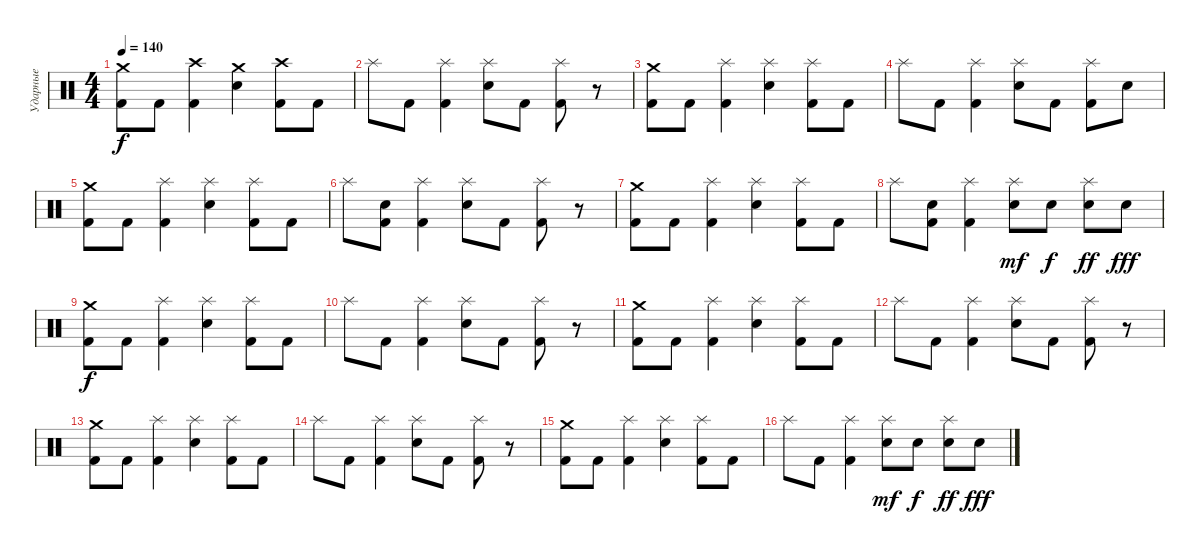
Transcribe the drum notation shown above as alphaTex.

\track ("Ударные" "Ударные") {instrument percussion}
\staff {score}
\articulation defaults
\ts (4 4)
\tempo 140
\clef neutral
\ks c
("Kick (hit) 2" "Crash medium (hit)").8{dy f} "Kick (hit) 2".8 ("Crash high (hit)" "Kick (hit) 2").4 ("Crash medium (hit)" "Electric Snare (hit)").4 ("Crash high (hit)" "Kick (hit) 2").8 "Kick (hit) 2".8 |
"Splash (hit)".8 "Kick (hit) 2".8 ("Splash (hit)" "Kick (hit) 2").4 ("Splash (hit)" "Electric Snare (hit)").8 "Kick (hit) 2".8 ("Splash (hit)" "Kick (hit) 2").8 r.8 |
("Kick (hit) 2" "Crash medium (hit)").8 "Kick (hit) 2".8 ("Splash (hit)" "Kick (hit) 2").4 ("Splash (hit)" "Electric Snare (hit)").4 ("Splash (hit)" "Kick (hit) 2").8 "Kick (hit) 2".8 |
"Splash (hit)".8 "Kick (hit) 2".8 ("Splash (hit)" "Kick (hit) 2").4 ("Splash (hit)" "Electric Snare (hit)").8 "Kick (hit) 2".8 ("Splash (hit)" "Kick (hit) 2").8 "Electric Snare (hit)".8 |
("Kick (hit) 2" "Crash medium (hit)").8 "Kick (hit) 2".8 ("Splash (hit)" "Kick (hit) 2").4 ("Splash (hit)" "Electric Snare (hit)").4 ("Splash (hit)" "Kick (hit) 2").8 "Kick (hit) 2".8 |
"Splash (hit)".8 ("Electric Snare (hit)" "Kick (hit) 2").8 ("Splash (hit)" "Kick (hit) 2").4 ("Splash (hit)" "Electric Snare (hit)").8 "Kick (hit) 2".8 ("Splash (hit)" "Kick (hit) 2").8 r.8 |
("Kick (hit) 2" "Crash medium (hit)").8 "Kick (hit) 2".8 ("Splash (hit)" "Kick (hit) 2").4 ("Splash (hit)" "Electric Snare (hit)").4 ("Splash (hit)" "Kick (hit) 2").8 "Kick (hit) 2".8 |
"Splash (hit)".8 ("Electric Snare (hit)" "Kick (hit) 2").8 ("Splash (hit)" "Kick (hit) 2").4 ("Splash (hit)" "Electric Snare (hit)").8{dy mf} "Electric Snare (hit)".8{dy f} ("Splash (hit)" "Electric Snare (hit)").8{dy ff} "Electric Snare (hit)".8{dy fff} |
("Kick (hit) 2" "Crash medium (hit)").8{dy f} "Kick (hit) 2".8 ("Splash (hit)" "Kick (hit) 2").4 ("Splash (hit)" "Electric Snare (hit)").4 ("Splash (hit)" "Kick (hit) 2").8 "Kick (hit) 2".8 |
"Splash (hit)".8 "Kick (hit) 2".8 ("Splash (hit)" "Kick (hit) 2").4 ("Splash (hit)" "Electric Snare (hit)").8 "Kick (hit) 2".8 ("Splash (hit)" "Kick (hit) 2").8 r.8 |
("Kick (hit) 2" "Crash medium (hit)").8 "Kick (hit) 2".8 ("Splash (hit)" "Kick (hit) 2").4 ("Splash (hit)" "Electric Snare (hit)").4 ("Splash (hit)" "Kick (hit) 2").8 "Kick (hit) 2".8 |
"Splash (hit)".8 "Kick (hit) 2".8 ("Splash (hit)" "Kick (hit) 2").4 ("Splash (hit)" "Electric Snare (hit)").8 "Kick (hit) 2".8 ("Splash (hit)" "Kick (hit) 2").8 r.8 |
("Kick (hit) 2" "Crash medium (hit)").8 "Kick (hit) 2".8 ("Splash (hit)" "Kick (hit) 2").4 ("Splash (hit)" "Electric Snare (hit)").4 ("Splash (hit)" "Kick (hit) 2").8 "Kick (hit) 2".8 |
"Splash (hit)".8 "Kick (hit) 2".8 ("Splash (hit)" "Kick (hit) 2").4 ("Splash (hit)" "Electric Snare (hit)").8 "Kick (hit) 2".8 ("Splash (hit)" "Kick (hit) 2").8 r.8 |
("Kick (hit) 2" "Crash medium (hit)").8 "Kick (hit) 2".8 ("Splash (hit)" "Kick (hit) 2").4 ("Splash (hit)" "Electric Snare (hit)").4 ("Splash (hit)" "Kick (hit) 2").8 "Kick (hit) 2".8 |
"Splash (hit)".8 "Kick (hit) 2".8 ("Splash (hit)" "Kick (hit) 2").4 ("Splash (hit)" "Electric Snare (hit)").8{dy mf} "Electric Snare (hit)".8{dy f} ("Splash (hit)" "Electric Snare (hit)").8{dy ff} "Electric Snare (hit)".8{dy fff}
